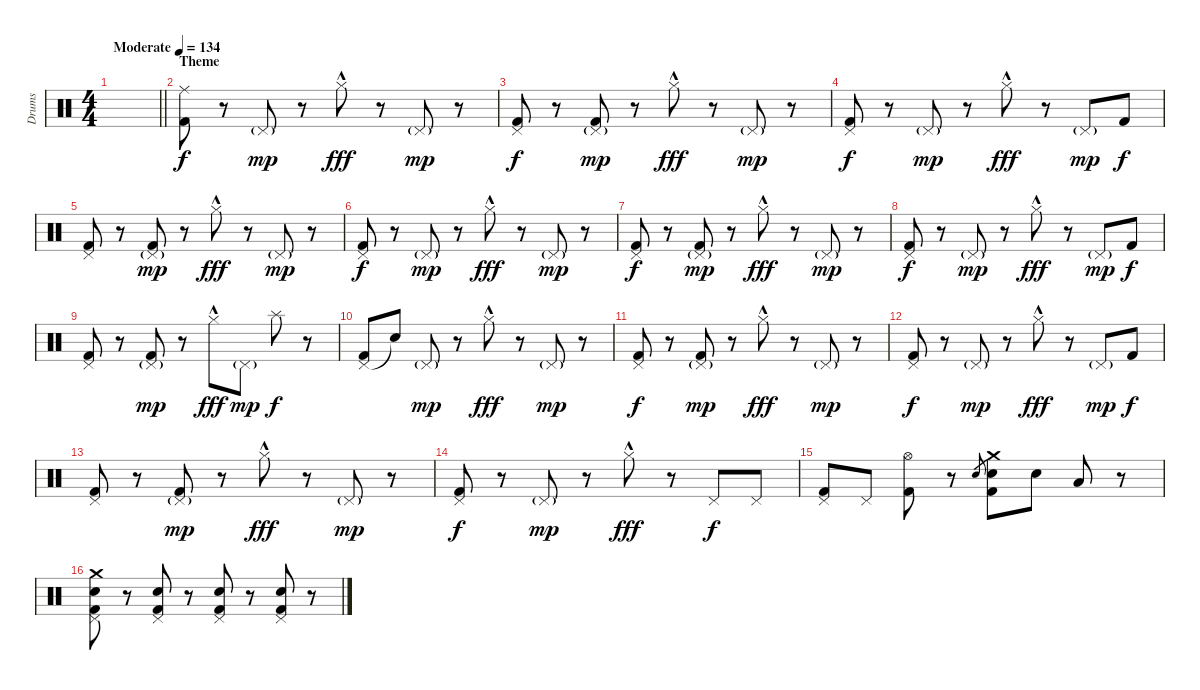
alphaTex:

\track ("Drums" "Drums") {instrument percussion}
\staff {score}
\articulation defaults
\ts (4 4)
\tempo (134 "Moderate")
\clef neutral
\barLineRight lightlight
\ks aminor
|
\section ("" "Theme")
("Ride (middle)" "Kick (hit) 2").8 r.8 "Pedal Hi-Hat (hit)"{g}.8{dy mp} r.8 "Hi-Hat (closed)"{hac}.8{dy fff} r.8 "Pedal Hi-Hat (hit)"{g}.8{dy mp} r.8 |
("Pedal Hi-Hat (hit)" "Kick (hit) 2").8{dy f} r.8 ("Pedal Hi-Hat (hit)"{g} "Kick (hit) 2").8{dy mp} r.8 "Hi-Hat (closed)"{hac}.8{dy fff} r.8 "Pedal Hi-Hat (hit)"{g}.8{dy mp} r.8 |
("Pedal Hi-Hat (hit)" "Kick (hit) 2").8{dy f} r.8 "Pedal Hi-Hat (hit)"{g}.8{dy mp} r.8 "Hi-Hat (closed)"{hac}.8{dy fff} r.8 "Pedal Hi-Hat (hit)"{g}.8{dy mp} "Kick (hit) 2".8{dy f} |
("Pedal Hi-Hat (hit)" "Kick (hit) 2").8 r.8 ("Pedal Hi-Hat (hit)"{g} "Kick (hit) 2").8{dy mp} r.8 "Hi-Hat (closed)"{hac}.8{dy fff} r.8 "Pedal Hi-Hat (hit)"{g}.8{dy mp} r.8 |
("Pedal Hi-Hat (hit)" "Kick (hit) 2").8{dy f} r.8 "Pedal Hi-Hat (hit)"{g}.8{dy mp} r.8 "Hi-Hat (closed)"{hac}.8{dy fff} r.8 "Pedal Hi-Hat (hit)"{g}.8{dy mp} r.8 |
("Pedal Hi-Hat (hit)" "Kick (hit) 2").8{dy f} r.8 ("Pedal Hi-Hat (hit)"{g} "Kick (hit) 2").8{dy mp} r.8 "Hi-Hat (closed)"{hac}.8{dy fff} r.8 "Pedal Hi-Hat (hit)"{g}.8{dy mp} r.8 |
("Pedal Hi-Hat (hit)" "Kick (hit) 2").8{dy f} r.8 "Pedal Hi-Hat (hit)"{g}.8{dy mp} r.8 "Hi-Hat (closed)"{hac}.8{dy fff} r.8 "Pedal Hi-Hat (hit)"{g}.8{dy mp} "Kick (hit) 2".8{dy f} |
("Pedal Hi-Hat (hit)" "Kick (hit) 2").8 r.8 ("Pedal Hi-Hat (hit)"{g} "Kick (hit) 2").8{dy mp} r.8 "Hi-Hat (closed)"{hac}.8{dy fff} "Pedal Hi-Hat (hit)"{g}.8{dy mp} "Splash (hit)".8{dy f} r.8 |
("Pedal Hi-Hat (hit)" "Kick (hit) 2").8 "Snare (hit)"{t}.8 "Pedal Hi-Hat (hit)"{g}.8{dy mp} r.8 "Hi-Hat (closed)"{hac}.8{dy fff} r.8 "Pedal Hi-Hat (hit)"{g}.8{dy mp} r.8 |
("Pedal Hi-Hat (hit)" "Kick (hit) 2").8{dy f} r.8 ("Pedal Hi-Hat (hit)"{g} "Kick (hit) 2").8{dy mp} r.8 "Hi-Hat (closed)"{hac}.8{dy fff} r.8 "Pedal Hi-Hat (hit)"{g}.8{dy mp} r.8 |
("Pedal Hi-Hat (hit)" "Kick (hit) 2").8{dy f} r.8 "Pedal Hi-Hat (hit)"{g}.8{dy mp} r.8 "Hi-Hat (closed)"{hac}.8{dy fff} r.8 "Pedal Hi-Hat (hit)"{g}.8{dy mp} "Kick (hit) 2".8{dy f} |
("Pedal Hi-Hat (hit)" "Kick (hit) 2").8 r.8 ("Pedal Hi-Hat (hit)"{g} "Kick (hit) 2").8{dy mp} r.8 "Hi-Hat (closed)"{hac}.8{dy fff} r.8 "Pedal Hi-Hat (hit)"{g}.8{dy mp} r.8 |
("Pedal Hi-Hat (hit)" "Kick (hit) 2").8{dy f} r.8 "Pedal Hi-Hat (hit)"{g}.8{dy mp} r.8 "Hi-Hat (closed)"{hac}.8{dy fff} r.8 "Pedal Hi-Hat (hit)".8{dy f} "Pedal Hi-Hat (hit)".8 |
("Pedal Hi-Hat (hit)" "Kick (hit) 2").8 "Pedal Hi-Hat (hit)".8 ("Hi-Hat (open)" "Kick (hit) 2").8 r.8 "Snare (hit) 2".8{gr} ("Crash medium (hit)" "Snare (hit) 2" "Kick (hit) 2").8 "Snare (hit) 2".8 "Low Tom (hit)".8 r.8 |
("Crash medium (hit)" "Pedal Hi-Hat (hit)" "Snare (hit) 2" "Kick (hit) 2").8 r.8 ("Pedal Hi-Hat (hit)" "Snare (hit) 2" "Kick (hit) 2").8 r.8 ("Pedal Hi-Hat (hit)" "Snare (hit) 2" "Kick (hit) 2").8 r.8 ("Pedal Hi-Hat (hit)" "Snare (hit) 2" "Kick (hit) 2").8 r.8
